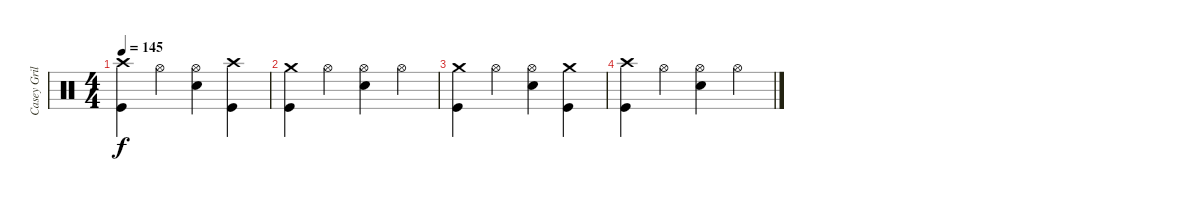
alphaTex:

\track ("Casey Grillo" "Casey Gril") {instrument percussion}
\staff {score}
\articulation defaults
\ts (4 4)
\tempo 145
\clef neutral
\ks c
("Crash high (hit)" "Kick (hit)").4{dy f} "Hi-Hat (open)".4 ("Hi-Hat (open)" "Snare (hit) 2").4 ("Crash high (hit)" "Kick (hit)").4 |
("Crash medium (hit)" "Kick (hit)").4 "Hi-Hat (open)".4 ("Hi-Hat (open)" "Snare (hit) 2").4 "Hi-Hat (open)".4 |
("Crash medium (hit)" "Kick (hit)").4 "Hi-Hat (open)".4 ("Hi-Hat (open)" "Snare (hit) 2").4 ("Crash medium (hit)" "Kick (hit)").4 |
("Crash high (hit)" "Kick (hit)").4 "Hi-Hat (open)".4 ("Hi-Hat (open)" "Snare (hit) 2").4 "Hi-Hat (open)".4
